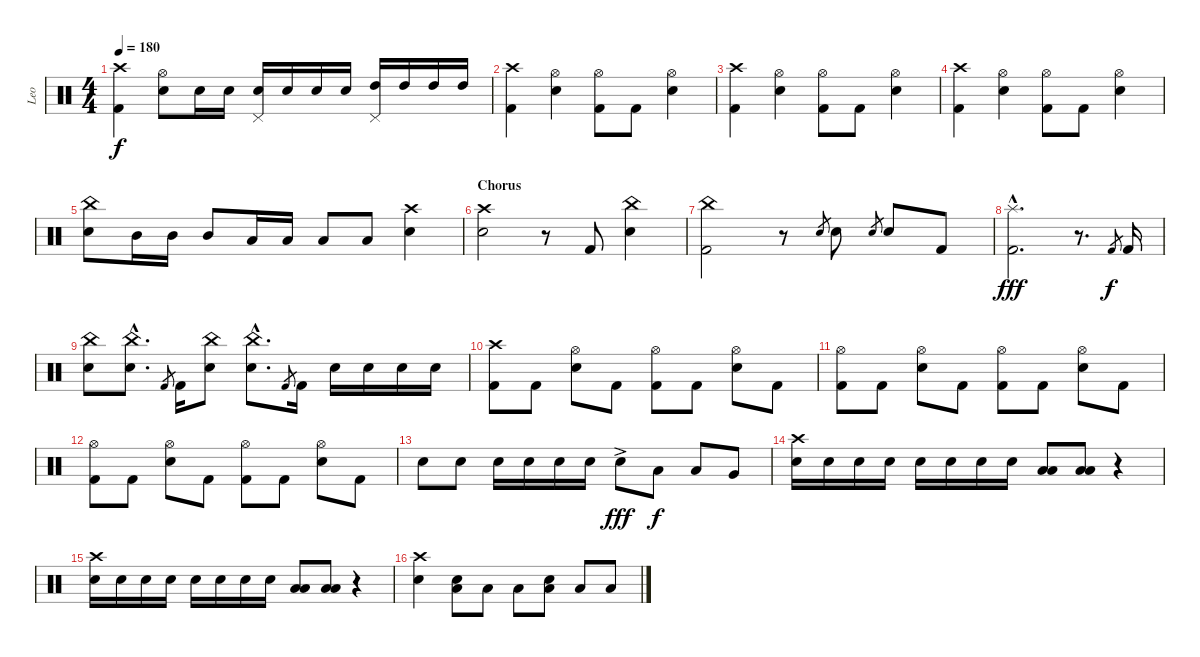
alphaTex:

\track ("Leo" "Leo") {instrument percussion}
\staff {score}
\articulation defaults
\ts (4 4)
\tempo 180
\clef neutral
\ks c
("Crash high (hit)" "Kick (hit) 2").4{dy f} ("Hi-Hat (open)" "Electric Snare (hit)").8 "Electric Snare (hit)".16 "Electric Snare (hit)".16 ("Electric Snare (hit)" "Pedal Hi-Hat (hit)").16 "Electric Snare (hit)".16 "Electric Snare (hit)".16 "Electric Snare (hit)".16 ("High Tom (hit)" "Pedal Hi-Hat (hit)").16 "High Tom (hit)".16 "High Tom (hit)".16 "High Tom (hit)".16 |
("Crash high (hit)" "Kick (hit) 2").4 ("Hi-Hat (open)" "Electric Snare (hit)").4 ("Hi-Hat (open)" "Kick (hit) 2").8 "Kick (hit) 2".8 ("Hi-Hat (open)" "Electric Snare (hit)").4 |
("Crash high (hit)" "Kick (hit) 2").4 ("Hi-Hat (open)" "Electric Snare (hit)").4 ("Hi-Hat (open)" "Kick (hit) 2").8 "Kick (hit) 2".8 ("Hi-Hat (open)" "Electric Snare (hit)").4 |
("Crash high (hit)" "Kick (hit) 2").4 ("Hi-Hat (open)" "Electric Snare (hit)").4 ("Hi-Hat (open)" "Kick (hit) 2").8 "Kick (hit) 2".8 ("Hi-Hat (open)" "Electric Snare (hit)").4 |
("China (hit)" "Electric Snare (hit)").8 "Mid Tom (hit)".16 "Mid Tom (hit)".16 "Mid Tom (hit)".8 "Low Tom (hit)".16 "Low Tom (hit)".16 "Low Tom (hit)".8 "Low Tom (hit)".8 ("Crash high (hit)" "Electric Snare (hit)").4 |
\section ("" "Chorus")
("Crash high (hit)" "Electric Snare (hit)").2 r.8 "Kick (hit) 2".8 ("China (hit)" "Electric Snare (hit)").4 |
("China (hit)" "Kick (hit) 2").2 r.8 "Electric Snare (hit)".8{gr} "Electric Snare (hit)".8 "Electric Snare (hit)".8{gr} "Electric Snare (hit)".8 "Kick (hit) 2".8 |
("Splash (hit)"{hac} "Kick (hit) 2"{hac}).2{d dy fff} r.8{d} "Kick (hit) 2".8{gr dy f} "Kick (hit) 2".16 |
("China (hit)" "Electric Snare (hit)").8 ("China (hit)"{hac} "Electric Snare (hit)"{hac}).8{d} "Kick (hit) 2".8{gr} "Kick (hit) 2".16 ("China (hit)" "Electric Snare (hit)").8 ("China (hit)"{hac} "Electric Snare (hit)"{hac}).8{d} "Kick (hit) 2".8{gr} "Kick (hit) 2".16 "Electric Snare (hit)".16 "Electric Snare (hit)".16 "Electric Snare (hit)".16 "Electric Snare (hit)".16 |
("Crash high (hit)" "Kick (hit) 2").8 "Kick (hit) 2".8 ("Hi-Hat (open)" "Electric Snare (hit)").8 "Kick (hit) 2".8 ("Hi-Hat (open)" "Kick (hit) 2").8 "Kick (hit) 2".8 ("Hi-Hat (open)" "Electric Snare (hit)").8 "Kick (hit) 2".8 |
("Hi-Hat (open)" "Kick (hit) 2").8 "Kick (hit) 2".8 ("Hi-Hat (open)" "Electric Snare (hit)").8 "Kick (hit) 2".8 ("Hi-Hat (open)" "Kick (hit) 2").8 "Kick (hit) 2".8 ("Hi-Hat (open)" "Electric Snare (hit)").8 "Kick (hit) 2".8 |
("Hi-Hat (open)" "Kick (hit) 2").8 "Kick (hit) 2".8 ("Hi-Hat (open)" "Electric Snare (hit)").8 "Kick (hit) 2".8 ("Hi-Hat (open)" "Kick (hit) 2").8 "Kick (hit) 2".8 ("Hi-Hat (open)" "Electric Snare (hit)").8 "Kick (hit) 2".8 |
"Electric Snare (hit)".8 "Electric Snare (hit)".8 "Electric Snare (hit)".16 "Electric Snare (hit)".16 "Electric Snare (hit)".16 "Electric Snare (hit)".16 "Electric Snare (hit)"{ac}.8{dy fff} "Low Tom (hit)".8{dy f} "Low Tom (hit)".8 "Very Low Tom (hit)".8 |
("Crash high (hit)" "Electric Snare (hit)").16 "Electric Snare (hit)".16 "Electric Snare (hit)".16 "Electric Snare (hit)".16 "Electric Snare (hit)".16 "Electric Snare (hit)".16 "Electric Snare (hit)".16 "Electric Snare (hit)".16 ("Low Tom (hit)" "Low Floor Tom (hit)").8 ("Low Tom (hit)" "Low Floor Tom (hit)").8 r.4 |
("Crash high (hit)" "Electric Snare (hit)").16 "Electric Snare (hit)".16 "Electric Snare (hit)".16 "Electric Snare (hit)".16 "Electric Snare (hit)".16 "Electric Snare (hit)".16 "Electric Snare (hit)".16 "Electric Snare (hit)".16 ("Low Tom (hit)" "Low Floor Tom (hit)").8 ("Low Tom (hit)" "Low Floor Tom (hit)").8 r.4 |
("Crash high (hit)" "Electric Snare (hit)").4 ("Low Tom (hit)" "Electric Snare (hit)").8 "Low Tom (hit)".8 "Low Tom (hit)".8 ("Low Tom (hit)" "Electric Snare (hit)").8 "Low Tom (hit)".8 "Low Tom (hit)".8
